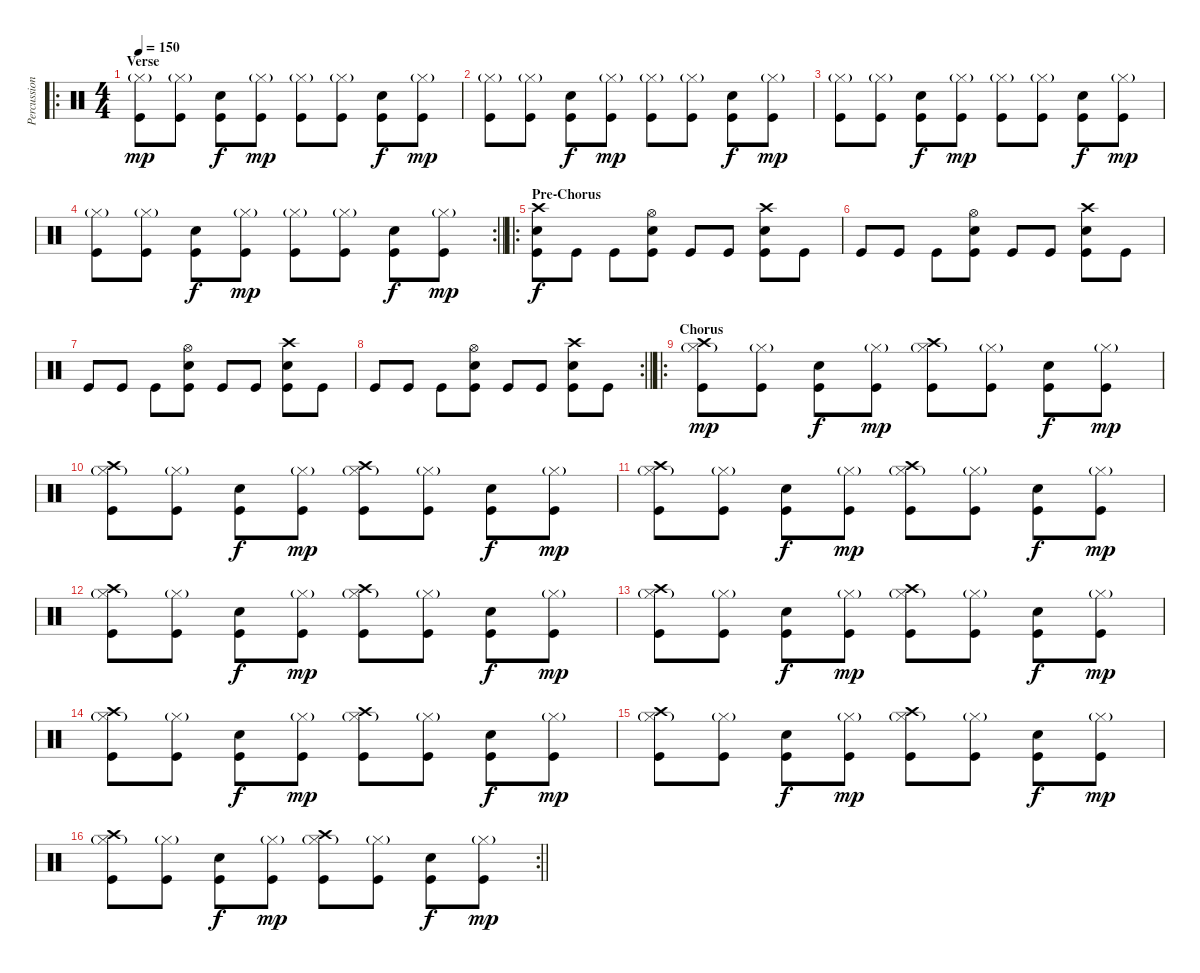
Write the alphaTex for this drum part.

\track ("Percussion" "Percussion") {instrument percussion}
\staff {score}
\articulation defaults
\ro
\ts (4 4)
\section ("" "Verse")
\tempo 150
\clef neutral
\ks c
("Kick (hit)" "Hi-Hat (closed)"{g}).8{dy mp} ("Kick (hit)" "Hi-Hat (closed)"{g}).8 ("Kick (hit)" "Snare (hit) 2").8{dy f} ("Kick (hit)" "Hi-Hat (closed)"{g}).8{dy mp} ("Kick (hit)" "Hi-Hat (closed)"{g}).8 ("Kick (hit)" "Hi-Hat (closed)"{g}).8 ("Kick (hit)" "Snare (hit) 2").8{dy f} ("Kick (hit)" "Hi-Hat (closed)"{g}).8{dy mp} |
("Kick (hit)" "Hi-Hat (closed)"{g}).8 ("Kick (hit)" "Hi-Hat (closed)"{g}).8 ("Kick (hit)" "Snare (hit) 2").8{dy f} ("Kick (hit)" "Hi-Hat (closed)"{g}).8{dy mp} ("Kick (hit)" "Hi-Hat (closed)"{g}).8 ("Kick (hit)" "Hi-Hat (closed)"{g}).8 ("Kick (hit)" "Snare (hit) 2").8{dy f} ("Kick (hit)" "Hi-Hat (closed)"{g}).8{dy mp} |
("Kick (hit)" "Hi-Hat (closed)"{g}).8 ("Kick (hit)" "Hi-Hat (closed)"{g}).8 ("Kick (hit)" "Snare (hit) 2").8{dy f} ("Kick (hit)" "Hi-Hat (closed)"{g}).8{dy mp} ("Kick (hit)" "Hi-Hat (closed)"{g}).8 ("Kick (hit)" "Hi-Hat (closed)"{g}).8 ("Kick (hit)" "Snare (hit) 2").8{dy f} ("Kick (hit)" "Hi-Hat (closed)"{g}).8{dy mp} |
\rc 2
\barLineRight lightlight
("Kick (hit)" "Hi-Hat (closed)"{g}).8 ("Kick (hit)" "Hi-Hat (closed)"{g}).8 ("Kick (hit)" "Snare (hit) 2").8{dy f} ("Kick (hit)" "Hi-Hat (closed)"{g}).8{dy mp} ("Kick (hit)" "Hi-Hat (closed)"{g}).8 ("Kick (hit)" "Hi-Hat (closed)"{g}).8 ("Kick (hit)" "Snare (hit) 2").8{dy f} ("Kick (hit)" "Hi-Hat (closed)"{g}).8{dy mp} |
\ro
\section ("" "Pre-Chorus")
("Kick (hit)" "Crash high (hit)" "Snare (hit) 2").8{dy f} "Kick (hit)".8 "Kick (hit)".8 ("Kick (hit)" "Snare (hit) 2" "Hi-Hat (open)").8 "Kick (hit)".8 "Kick (hit)".8 ("Snare (hit) 2" "Kick (hit)" "Crash high (hit)").8 "Kick (hit)".8 |
"Kick (hit)".8 "Kick (hit)".8 "Kick (hit)".8 ("Kick (hit)" "Snare (hit) 2" "Hi-Hat (open)").8 "Kick (hit)".8 "Kick (hit)".8 ("Kick (hit)" "Snare (hit) 2" "Crash high (hit)").8 "Kick (hit)".8 |
"Kick (hit)".8 "Kick (hit)".8 "Kick (hit)".8 ("Kick (hit)" "Snare (hit) 2" "Hi-Hat (open)").8 "Kick (hit)".8 "Kick (hit)".8 ("Kick (hit)" "Snare (hit) 2" "Crash high (hit)").8 "Kick (hit)".8 |
\rc 2
\barLineRight lightlight "Kick (hit)".8 "Kick (hit)".8 "Kick (hit)".8
("Kick (hit)" "Snare (hit) 2" "Hi-Hat (open)").8 "Kick (hit)".8 "Kick (hit)".8 ("Kick (hit)" "Snare (hit) 2" "Crash high (hit)").8 "Kick (hit)".8 |
\ro
\section ("" "Chorus")
("Kick (hit)" "Hi-Hat (closed)"{g} "Crash high (hit)").8{dy mp} ("Kick (hit)" "Hi-Hat (closed)"{g}).8 ("Kick (hit)" "Snare (hit) 2").8{dy f} ("Kick (hit)" "Hi-Hat (closed)"{g}).8{dy mp} ("Kick (hit)" "Hi-Hat (closed)"{g} "Crash high (hit)").8 ("Kick (hit)" "Hi-Hat (closed)"{g}).8 ("Kick (hit)" "Snare (hit) 2").8{dy f} ("Kick (hit)" "Hi-Hat (closed)"{g}).8{dy mp} |
("Kick (hit)" "Hi-Hat (closed)"{g} "Crash high (hit)").8 ("Kick (hit)" "Hi-Hat (closed)"{g}).8 ("Kick (hit)" "Snare (hit) 2").8{dy f} ("Kick (hit)" "Hi-Hat (closed)"{g}).8{dy mp} ("Kick (hit)" "Hi-Hat (closed)"{g} "Crash high (hit)").8 ("Kick (hit)" "Hi-Hat (closed)"{g}).8 ("Kick (hit)" "Snare (hit) 2").8{dy f} ("Kick (hit)" "Hi-Hat (closed)"{g}).8{dy mp} |
("Kick (hit)" "Hi-Hat (closed)"{g} "Crash high (hit)").8 ("Kick (hit)" "Hi-Hat (closed)"{g}).8 ("Kick (hit)" "Snare (hit) 2").8{dy f} ("Kick (hit)" "Hi-Hat (closed)"{g}).8{dy mp} ("Kick (hit)" "Hi-Hat (closed)"{g} "Crash high (hit)").8 ("Kick (hit)" "Hi-Hat (closed)"{g}).8 ("Kick (hit)" "Snare (hit) 2").8{dy f} ("Kick (hit)" "Hi-Hat (closed)"{g}).8{dy mp} |
("Kick (hit)" "Hi-Hat (closed)"{g} "Crash high (hit)").8 ("Kick (hit)" "Hi-Hat (closed)"{g}).8 ("Kick (hit)" "Snare (hit) 2").8{dy f} ("Kick (hit)" "Hi-Hat (closed)"{g}).8{dy mp} ("Kick (hit)" "Hi-Hat (closed)"{g} "Crash high (hit)").8 ("Kick (hit)" "Hi-Hat (closed)"{g}).8 ("Kick (hit)" "Snare (hit) 2").8{dy f} ("Kick (hit)" "Hi-Hat (closed)"{g}).8{dy mp} |
("Kick (hit)" "Hi-Hat (closed)"{g} "Crash high (hit)").8 ("Kick (hit)" "Hi-Hat (closed)"{g}).8 ("Kick (hit)" "Snare (hit) 2").8{dy f} ("Kick (hit)" "Hi-Hat (closed)"{g}).8{dy mp} ("Kick (hit)" "Hi-Hat (closed)"{g} "Crash high (hit)").8 ("Kick (hit)" "Hi-Hat (closed)"{g}).8 ("Kick (hit)" "Snare (hit) 2").8{dy f} ("Kick (hit)" "Hi-Hat (closed)"{g}).8{dy mp} |
("Kick (hit)" "Hi-Hat (closed)"{g} "Crash high (hit)").8 ("Kick (hit)" "Hi-Hat (closed)"{g}).8 ("Kick (hit)" "Snare (hit) 2").8{dy f} ("Kick (hit)" "Hi-Hat (closed)"{g}).8{dy mp} ("Kick (hit)" "Hi-Hat (closed)"{g} "Crash high (hit)").8 ("Kick (hit)" "Hi-Hat (closed)"{g}).8 ("Kick (hit)" "Snare (hit) 2").8{dy f} ("Kick (hit)" "Hi-Hat (closed)"{g}).8{dy mp} |
("Kick (hit)" "Hi-Hat (closed)"{g} "Crash high (hit)").8 ("Kick (hit)" "Hi-Hat (closed)"{g}).8 ("Kick (hit)" "Snare (hit) 2").8{dy f} ("Kick (hit)" "Hi-Hat (closed)"{g}).8{dy mp} ("Kick (hit)" "Hi-Hat (closed)"{g} "Crash high (hit)").8 ("Kick (hit)" "Hi-Hat (closed)"{g}).8 ("Kick (hit)" "Snare (hit) 2").8{dy f} ("Kick (hit)" "Hi-Hat (closed)"{g}).8{dy mp} |
\rc 2
\barLineRight lightlight
("Kick (hit)" "Hi-Hat (closed)"{g} "Crash high (hit)").8 ("Kick (hit)" "Hi-Hat (closed)"{g}).8 ("Kick (hit)" "Snare (hit) 2").8{dy f} ("Kick (hit)" "Hi-Hat (closed)"{g}).8{dy mp} ("Kick (hit)" "Hi-Hat (closed)"{g} "Crash high (hit)").8 ("Kick (hit)" "Hi-Hat (closed)"{g}).8 ("Kick (hit)" "Snare (hit) 2").8{dy f} ("Kick (hit)" "Hi-Hat (closed)"{g}).8{dy mp}
